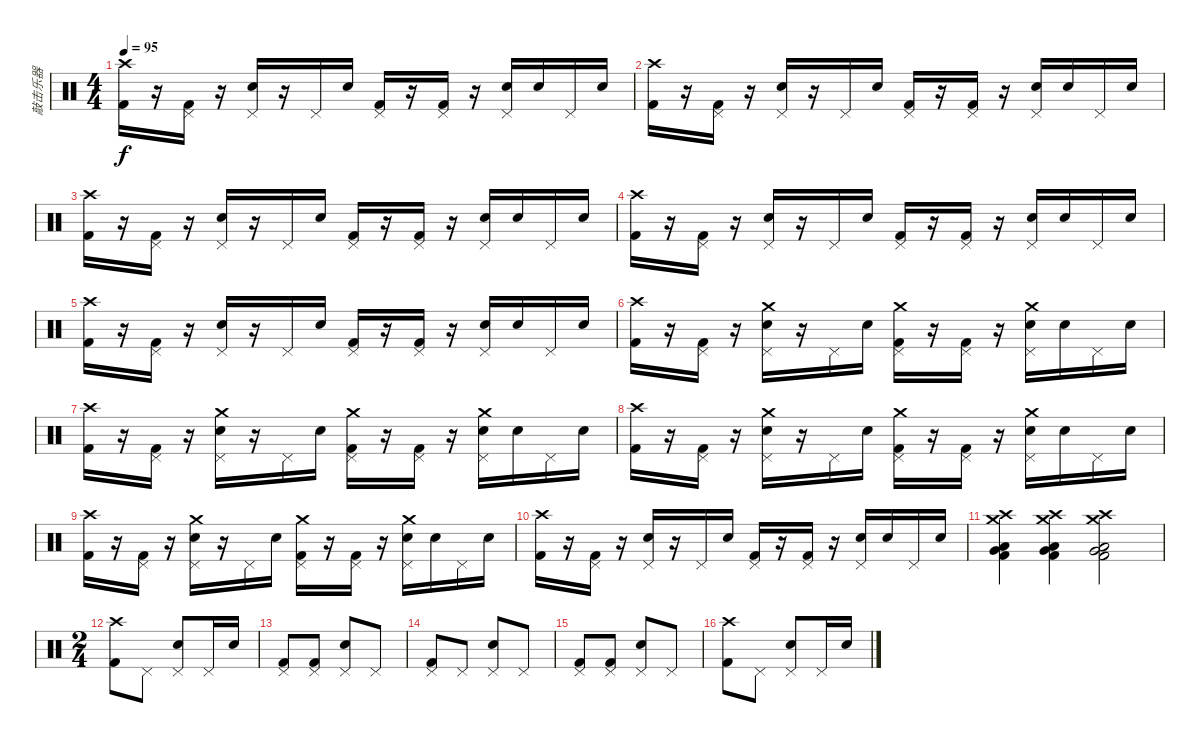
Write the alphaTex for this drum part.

\track ("敲击乐器" "敲击乐器") {instrument percussion}
\staff {score}
\articulation defaults
\ts (4 4)
\tempo 95
\clef neutral
\ks c
("Crash high (hit)" "Kick (hit) 2").16{dy f} r.16 ("Pedal Hi-Hat (hit)" "Kick (hit) 2").16 r.16 ("Pedal Hi-Hat (hit)" "Electric Snare (hit)").16 r.16 "Pedal Hi-Hat (hit)".16 "Electric Snare (hit)".16 ("Pedal Hi-Hat (hit)" "Kick (hit) 2").16 r.16 ("Pedal Hi-Hat (hit)" "Kick (hit) 2").16 r.16 ("Pedal Hi-Hat (hit)" "Electric Snare (hit)").16 "Electric Snare (hit)".16 "Pedal Hi-Hat (hit)".16 "Electric Snare (hit)".16 |
("Crash high (hit)" "Kick (hit) 2").16 r.16 ("Pedal Hi-Hat (hit)" "Kick (hit) 2").16 r.16 ("Pedal Hi-Hat (hit)" "Electric Snare (hit)").16 r.16 "Pedal Hi-Hat (hit)".16 "Electric Snare (hit)".16 ("Pedal Hi-Hat (hit)" "Kick (hit) 2").16 r.16 ("Pedal Hi-Hat (hit)" "Kick (hit) 2").16 r.16 ("Pedal Hi-Hat (hit)" "Electric Snare (hit)").16 "Electric Snare (hit)".16 "Pedal Hi-Hat (hit)".16 "Electric Snare (hit)".16 |
("Crash high (hit)" "Kick (hit) 2").16 r.16 ("Pedal Hi-Hat (hit)" "Kick (hit) 2").16 r.16 ("Pedal Hi-Hat (hit)" "Electric Snare (hit)").16 r.16 "Pedal Hi-Hat (hit)".16 "Electric Snare (hit)".16 ("Pedal Hi-Hat (hit)" "Kick (hit) 2").16 r.16 ("Pedal Hi-Hat (hit)" "Kick (hit) 2").16 r.16 ("Pedal Hi-Hat (hit)" "Electric Snare (hit)").16 "Electric Snare (hit)".16 "Pedal Hi-Hat (hit)".16 "Electric Snare (hit)".16 |
("Crash high (hit)" "Kick (hit) 2").16 r.16 ("Pedal Hi-Hat (hit)" "Kick (hit) 2").16 r.16 ("Pedal Hi-Hat (hit)" "Electric Snare (hit)").16 r.16 "Pedal Hi-Hat (hit)".16 "Electric Snare (hit)".16 ("Pedal Hi-Hat (hit)" "Kick (hit) 2").16 r.16 ("Pedal Hi-Hat (hit)" "Kick (hit) 2").16 r.16 ("Pedal Hi-Hat (hit)" "Electric Snare (hit)").16 "Electric Snare (hit)".16 "Pedal Hi-Hat (hit)".16 "Electric Snare (hit)".16 |
("Crash high (hit)" "Kick (hit) 2").16 r.16 ("Pedal Hi-Hat (hit)" "Kick (hit) 2").16 r.16 ("Pedal Hi-Hat (hit)" "Electric Snare (hit)").16 r.16 "Pedal Hi-Hat (hit)".16 "Electric Snare (hit)".16 ("Pedal Hi-Hat (hit)" "Kick (hit) 2").16 r.16 ("Pedal Hi-Hat (hit)" "Kick (hit) 2").16 r.16 ("Pedal Hi-Hat (hit)" "Electric Snare (hit)").16 "Electric Snare (hit)".16 "Pedal Hi-Hat (hit)".16 "Electric Snare (hit)".16 |
("Crash high (hit)" "Kick (hit) 2").16 r.16 ("Pedal Hi-Hat (hit)" "Kick (hit) 2").16 r.16 ("Pedal Hi-Hat (hit)" "Crash medium (hit)" "Electric Snare (hit)").16 r.16 "Pedal Hi-Hat (hit)".16 "Electric Snare (hit)".16 ("Pedal Hi-Hat (hit)" "Crash medium (hit)" "Kick (hit) 2").16 r.16 ("Pedal Hi-Hat (hit)" "Kick (hit) 2").16 r.16 ("Pedal Hi-Hat (hit)" "Crash medium (hit)" "Electric Snare (hit)").16 "Electric Snare (hit)".16 "Pedal Hi-Hat (hit)".16 "Electric Snare (hit)".16 |
("Crash high (hit)" "Kick (hit) 2").16 r.16 ("Pedal Hi-Hat (hit)" "Kick (hit) 2").16 r.16 ("Pedal Hi-Hat (hit)" "Crash medium (hit)" "Electric Snare (hit)").16 r.16 "Pedal Hi-Hat (hit)".16 "Electric Snare (hit)".16 ("Pedal Hi-Hat (hit)" "Crash medium (hit)" "Kick (hit) 2").16 r.16 ("Pedal Hi-Hat (hit)" "Kick (hit) 2").16 r.16 ("Pedal Hi-Hat (hit)" "Crash medium (hit)" "Electric Snare (hit)").16 "Electric Snare (hit)".16 "Pedal Hi-Hat (hit)".16 "Electric Snare (hit)".16 |
("Crash high (hit)" "Kick (hit) 2").16 r.16 ("Pedal Hi-Hat (hit)" "Kick (hit) 2").16 r.16 ("Pedal Hi-Hat (hit)" "Crash medium (hit)" "Electric Snare (hit)").16 r.16 "Pedal Hi-Hat (hit)".16 "Electric Snare (hit)".16 ("Pedal Hi-Hat (hit)" "Crash medium (hit)" "Kick (hit) 2").16 r.16 ("Pedal Hi-Hat (hit)" "Kick (hit) 2").16 r.16 ("Pedal Hi-Hat (hit)" "Crash medium (hit)" "Electric Snare (hit)").16 "Electric Snare (hit)".16 "Pedal Hi-Hat (hit)".16 "Electric Snare (hit)".16 |
("Crash high (hit)" "Kick (hit) 2").16 r.16 ("Pedal Hi-Hat (hit)" "Kick (hit) 2").16 r.16 ("Pedal Hi-Hat (hit)" "Crash medium (hit)" "Electric Snare (hit)").16 r.16 "Pedal Hi-Hat (hit)".16 "Electric Snare (hit)".16 ("Pedal Hi-Hat (hit)" "Crash medium (hit)" "Kick (hit) 2").16 r.16 ("Pedal Hi-Hat (hit)" "Kick (hit) 2").16 r.16 ("Pedal Hi-Hat (hit)" "Crash medium (hit)" "Electric Snare (hit)").16 "Electric Snare (hit)".16 "Pedal Hi-Hat (hit)".16 "Electric Snare (hit)".16 |
("Crash high (hit)" "Kick (hit) 2").16 r.16 ("Pedal Hi-Hat (hit)" "Kick (hit) 2").16 r.16 ("Pedal Hi-Hat (hit)" "Electric Snare (hit)").16 r.16 "Pedal Hi-Hat (hit)".16 "Electric Snare (hit)".16 ("Pedal Hi-Hat (hit)" "Kick (hit) 2").16 r.16 ("Pedal Hi-Hat (hit)" "Kick (hit) 2").16 r.16 ("Pedal Hi-Hat (hit)" "Electric Snare (hit)").16 "Electric Snare (hit)".16 "Pedal Hi-Hat (hit)".16 "Electric Snare (hit)".16 |
("Crash medium (hit)" "Crash high (hit)" "Low Tom (hit)" "Very Low Tom (hit)" "Kick (hit) 2").4 ("Crash medium (hit)" "Crash high (hit)" "Low Tom (hit)" "Very Low Tom (hit)" "Kick (hit) 2").4 ("Crash medium (hit)" "Crash high (hit)" "Low Tom (hit)" "Very Low Tom (hit)" "Kick (hit) 2").2 |
\ts (2 4)
("Crash high (hit)" "Kick (hit) 2").8 "Pedal Hi-Hat (hit)".8 ("Pedal Hi-Hat (hit)" "Electric Snare (hit)").8 "Pedal Hi-Hat (hit)".16 "Electric Snare (hit)".16 |
("Pedal Hi-Hat (hit)" "Kick (hit) 2").8 ("Pedal Hi-Hat (hit)" "Kick (hit) 2").8 ("Pedal Hi-Hat (hit)" "Electric Snare (hit)").8 "Pedal Hi-Hat (hit)".8 |
("Pedal Hi-Hat (hit)" "Kick (hit) 2").8 "Pedal Hi-Hat (hit)".8 ("Pedal Hi-Hat (hit)" "Electric Snare (hit)").8 "Pedal Hi-Hat (hit)".8 |
("Pedal Hi-Hat (hit)" "Kick (hit) 2").8 ("Pedal Hi-Hat (hit)" "Kick (hit) 2").8 ("Pedal Hi-Hat (hit)" "Electric Snare (hit)").8 "Pedal Hi-Hat (hit)".8 |
("Crash high (hit)" "Kick (hit) 2").8 "Pedal Hi-Hat (hit)".8 ("Pedal Hi-Hat (hit)" "Electric Snare (hit)").8 "Pedal Hi-Hat (hit)".16 "Electric Snare (hit)".16
